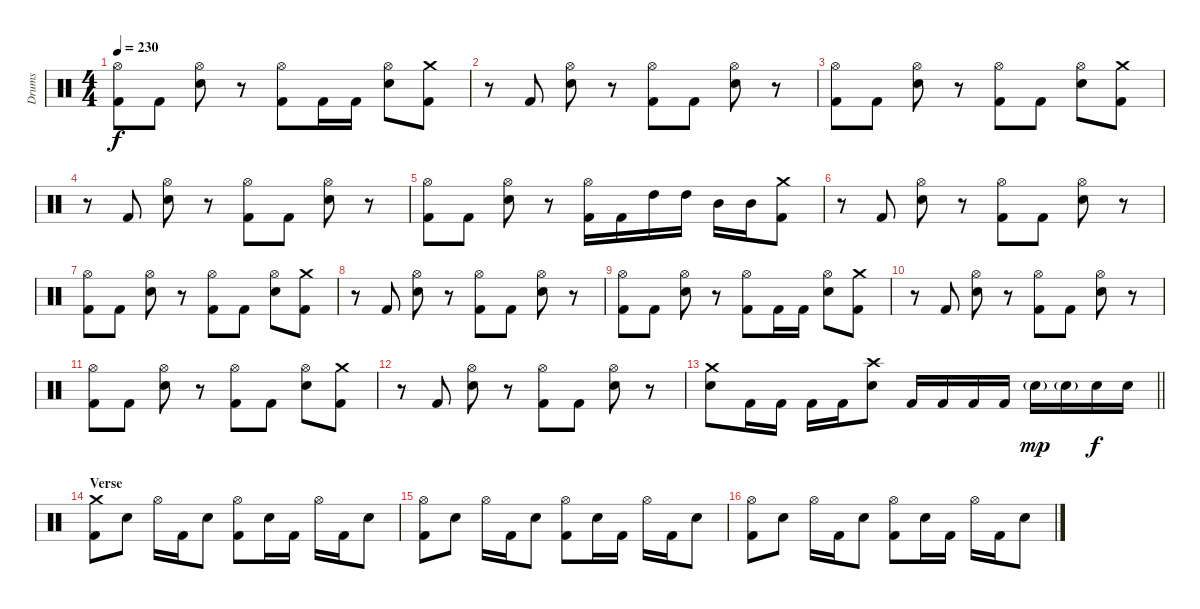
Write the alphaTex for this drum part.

\track ("Drums" "Drums") {instrument percussion}
\staff {score}
\articulation defaults
\ts (4 4)
\tempo 230
\clef neutral
\ks c
("Hi-Hat (open)" "Kick (hit) 2").8{dy f} "Kick (hit) 2".8 ("Hi-Hat (open)" "Electric Snare (hit)").8 r.8 ("Hi-Hat (open)" "Kick (hit) 2").8 "Kick (hit) 2".16 "Kick (hit) 2".16 ("Hi-Hat (open)" "Electric Snare (hit)").8 ("Crash medium (hit)" "Kick (hit) 2").8 |
r.8 "Kick (hit) 2".8 ("Hi-Hat (open)" "Electric Snare (hit)").8 r.8 ("Hi-Hat (open)" "Kick (hit) 2").8 "Kick (hit) 2".8 ("Hi-Hat (open)" "Electric Snare (hit)").8 r.8 |
("Hi-Hat (open)" "Kick (hit) 2").8 "Kick (hit) 2".8 ("Hi-Hat (open)" "Electric Snare (hit)").8 r.8 ("Hi-Hat (open)" "Kick (hit) 2").8 "Kick (hit) 2".8 ("Hi-Hat (open)" "Electric Snare (hit)").8 ("Crash medium (hit)" "Kick (hit) 2").8 |
r.8 "Kick (hit) 2".8 ("Hi-Hat (open)" "Electric Snare (hit)").8 r.8 ("Hi-Hat (open)" "Kick (hit) 2").8 "Kick (hit) 2".8 ("Hi-Hat (open)" "Electric Snare (hit)").8 r.8 |
("Hi-Hat (open)" "Kick (hit) 2").8 "Kick (hit) 2".8 ("Hi-Hat (open)" "Electric Snare (hit)").8 r.8 ("Hi-Hat (open)" "Kick (hit) 2").16 "Kick (hit) 2".16 "High Tom (hit)".16 "High Tom (hit)".16 "Mid Tom (hit)".16 "Mid Tom (hit)".16 ("Crash medium (hit)" "Kick (hit) 2").8 |
r.8 "Kick (hit) 2".8 ("Hi-Hat (open)" "Electric Snare (hit)").8 r.8 ("Hi-Hat (open)" "Kick (hit) 2").8 "Kick (hit) 2".8 ("Hi-Hat (open)" "Electric Snare (hit)").8 r.8 |
("Hi-Hat (open)" "Kick (hit) 2").8 "Kick (hit) 2".8 ("Hi-Hat (open)" "Electric Snare (hit)").8 r.8 ("Hi-Hat (open)" "Kick (hit) 2").8 "Kick (hit) 2".8 ("Hi-Hat (open)" "Electric Snare (hit)").8 ("Crash medium (hit)" "Kick (hit) 2").8 |
r.8 "Kick (hit) 2".8 ("Hi-Hat (open)" "Electric Snare (hit)").8 r.8 ("Hi-Hat (open)" "Kick (hit) 2").8 "Kick (hit) 2".8 ("Hi-Hat (open)" "Electric Snare (hit)").8 r.8 |
("Hi-Hat (open)" "Kick (hit) 2").8 "Kick (hit) 2".8 ("Hi-Hat (open)" "Electric Snare (hit)").8 r.8 ("Hi-Hat (open)" "Kick (hit) 2").8 "Kick (hit) 2".16 "Kick (hit) 2".16 ("Hi-Hat (open)" "Electric Snare (hit)").8 ("Crash medium (hit)" "Kick (hit) 2").8 |
r.8 "Kick (hit) 2".8 ("Hi-Hat (open)" "Electric Snare (hit)").8 r.8 ("Hi-Hat (open)" "Kick (hit) 2").8 "Kick (hit) 2".8 ("Hi-Hat (open)" "Electric Snare (hit)").8 r.8 |
("Hi-Hat (open)" "Kick (hit) 2").8 "Kick (hit) 2".8 ("Hi-Hat (open)" "Electric Snare (hit)").8 r.8 ("Hi-Hat (open)" "Kick (hit) 2").8 "Kick (hit) 2".8 ("Hi-Hat (open)" "Electric Snare (hit)").8 ("Crash medium (hit)" "Kick (hit) 2").8 |
r.8 "Kick (hit) 2".8 ("Hi-Hat (open)" "Electric Snare (hit)").8 r.8 ("Hi-Hat (open)" "Kick (hit) 2").8 "Kick (hit) 2".8 ("Hi-Hat (open)" "Electric Snare (hit)").8 r.8 |
\barLineRight lightlight
("Crash medium (hit)" "Electric Snare (hit)").8 "Kick (hit) 2".16 "Kick (hit) 2".16 "Kick (hit) 2".16 "Kick (hit) 2".16 ("Crash high (hit)" "Electric Snare (hit)").8 "Kick (hit) 2".16 "Kick (hit) 2".16 "Kick (hit) 2".16 "Kick (hit) 2".16 "Electric Snare (hit)"{g}.16{dy mp} "Electric Snare (hit)"{g}.16 "Electric Snare (hit)".16{dy f} "Electric Snare (hit)".16 |
\section ("" "Verse")
("Crash medium (hit)" "Kick (hit) 2").8 "Electric Snare (hit)".8 "Hi-Hat (open)".16 "Kick (hit) 2".16 "Electric Snare (hit)".8 ("Hi-Hat (open)" "Kick (hit) 2").8 "Electric Snare (hit)".16 "Kick (hit) 2".16 "Hi-Hat (open)".16 "Kick (hit) 2".16 "Electric Snare (hit)".8 |
("Hi-Hat (open)" "Kick (hit) 2").8 "Electric Snare (hit)".8 "Hi-Hat (open)".16 "Kick (hit) 2".16 "Electric Snare (hit)".8 ("Hi-Hat (open)" "Kick (hit) 2").8 "Electric Snare (hit)".16 "Kick (hit) 2".16 "Hi-Hat (open)".16 "Kick (hit) 2".16 "Electric Snare (hit)".8 |
("Hi-Hat (open)" "Kick (hit) 2").8 "Electric Snare (hit)".8 "Hi-Hat (open)".16 "Kick (hit) 2".16 "Electric Snare (hit)".8 ("Hi-Hat (open)" "Kick (hit) 2").8 "Electric Snare (hit)".16 "Kick (hit) 2".16 "Hi-Hat (open)".16 "Kick (hit) 2".16 "Electric Snare (hit)".8
